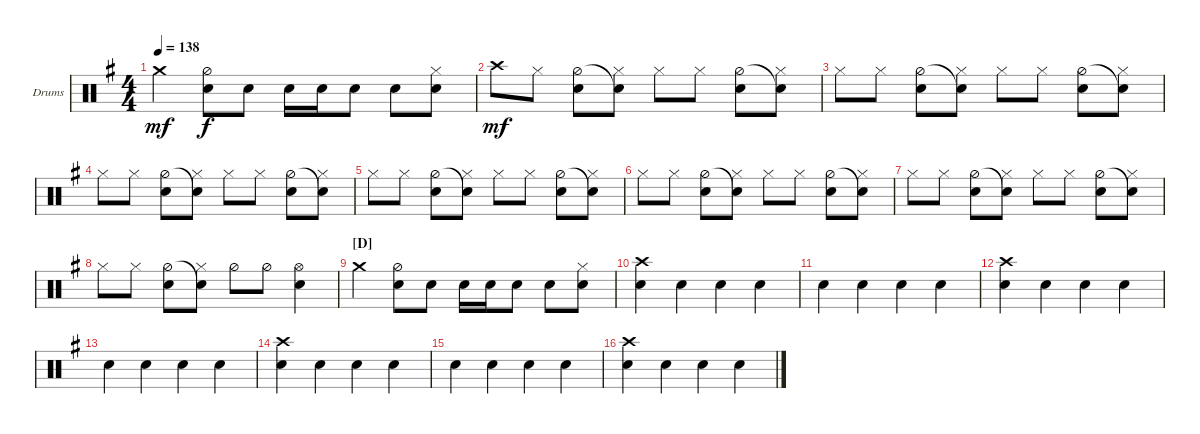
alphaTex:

\defaultSystemsLayout 4
\bracketExtendMode groupsimilarinstruments
\firstSystemTrackNameOrientation horizontal
\otherSystemsTrackNameOrientation horizontal
\track ("Drumkit" "Drums") {instrument percussion}
\staff {score}
\articulation defaults
\ts (4 4)
\tempo 138
\clef neutral
\ks g "Crash medium (hit)".4{dy mf}
("Snare (hit) 2" "Hi-Hat (half)").8{dy f} "Snare (hit) 2".8 "Snare (hit) 2".16 "Snare (hit) 2".16 "Snare (hit) 2".8 "Snare (hit) 2".8 ("Snare (hit) 2" "Hi-Hat (closed)").8 |
"Crash high (hit)".8{dy mf} "Hi-Hat (closed)".8 ("Hi-Hat (half)" "Snare (hit) 2").8 ("Snare (hit) 2"{t} "Hi-Hat (closed)").8 "Hi-Hat (closed)".8 "Hi-Hat (closed)".8 ("Hi-Hat (half)" "Snare (hit) 2").8 ("Snare (hit) 2"{t} "Hi-Hat (closed)").8 |
"Hi-Hat (closed)".8 "Hi-Hat (closed)".8 ("Hi-Hat (half)" "Snare (hit) 2").8 ("Snare (hit) 2"{t} "Hi-Hat (closed)").8 "Hi-Hat (closed)".8 "Hi-Hat (closed)".8 ("Hi-Hat (half)" "Snare (hit) 2").8 ("Snare (hit) 2"{t} "Hi-Hat (closed)").8 |
"Hi-Hat (closed)".8 "Hi-Hat (closed)".8 ("Hi-Hat (half)" "Snare (hit) 2").8 ("Snare (hit) 2"{t} "Hi-Hat (closed)").8 "Hi-Hat (closed)".8 "Hi-Hat (closed)".8 ("Hi-Hat (half)" "Snare (hit) 2").8 ("Snare (hit) 2"{t} "Hi-Hat (closed)").8 |
"Hi-Hat (closed)".8 "Hi-Hat (closed)".8 ("Hi-Hat (half)" "Snare (hit) 2").8 ("Snare (hit) 2"{t} "Hi-Hat (closed)").8 "Hi-Hat (closed)".8 "Hi-Hat (closed)".8 ("Hi-Hat (half)" "Snare (hit) 2").8 ("Snare (hit) 2"{t} "Hi-Hat (closed)").8 |
"Hi-Hat (closed)".8 "Hi-Hat (closed)".8 ("Hi-Hat (half)" "Snare (hit) 2").8 ("Snare (hit) 2"{t} "Hi-Hat (closed)").8 "Hi-Hat (closed)".8 "Hi-Hat (closed)".8 ("Hi-Hat (half)" "Snare (hit) 2").8 ("Snare (hit) 2"{t} "Hi-Hat (closed)").8 |
"Hi-Hat (closed)".8 "Hi-Hat (closed)".8 ("Hi-Hat (half)" "Snare (hit) 2").8 ("Snare (hit) 2"{t} "Hi-Hat (closed)").8 "Hi-Hat (closed)".8 "Hi-Hat (closed)".8 ("Hi-Hat (half)" "Snare (hit) 2").8 ("Snare (hit) 2"{t} "Hi-Hat (closed)").8 |
"Hi-Hat (closed)".8 "Hi-Hat (closed)".8 ("Hi-Hat (half)" "Snare (hit) 2").8 ("Snare (hit) 2"{t} "Hi-Hat (closed)").8 "Hi-Hat (half)".8 "Hi-Hat (half)".8 ("Hi-Hat (open)" "Snare (hit) 2").4 |
\section ("D" "")
"Crash medium (hit)".4 ("Snare (hit) 2" "Hi-Hat (half)").8 "Snare (hit) 2".8 "Snare (hit) 2".16 "Snare (hit) 2".16 "Snare (hit) 2".8 "Snare (hit) 2".8 ("Snare (hit) 2" "Hi-Hat (closed)").8 |
("Snare (hit) 2" "Crash high (hit)").4 "Snare (hit) 2".4 "Snare (hit) 2".4 "Snare (hit) 2".4 |
"Snare (hit) 2".4 "Snare (hit) 2".4 "Snare (hit) 2".4 "Snare (hit) 2".4 |
("Snare (hit) 2" "Crash high (hit)").4 "Snare (hit) 2".4 "Snare (hit) 2".4 "Snare (hit) 2".4 |
"Snare (hit) 2".4 "Snare (hit) 2".4 "Snare (hit) 2".4 "Snare (hit) 2".4 |
("Snare (hit) 2" "Crash high (hit)").4 "Snare (hit) 2".4 "Snare (hit) 2".4 "Snare (hit) 2".4 |
"Snare (hit) 2".4 "Snare (hit) 2".4 "Snare (hit) 2".4 "Snare (hit) 2".4 |
("Snare (hit) 2" "Crash high (hit)").4 "Snare (hit) 2".4 "Snare (hit) 2".4 "Snare (hit) 2".4
